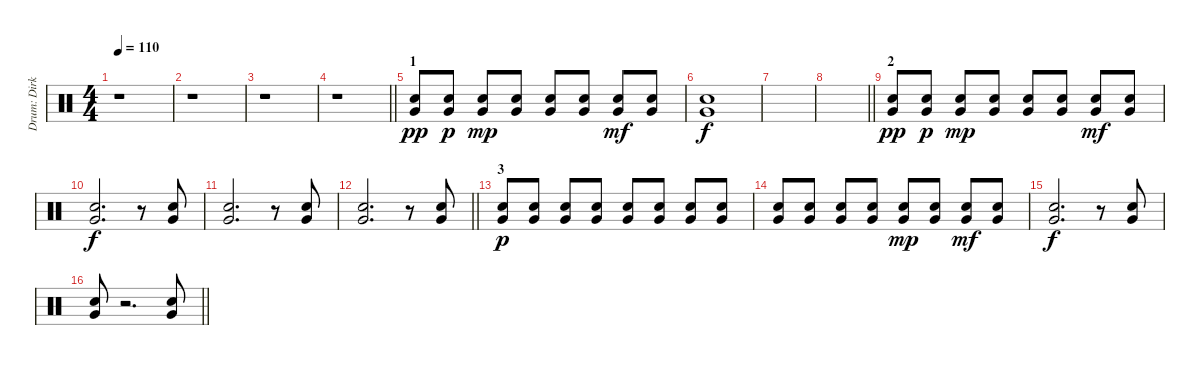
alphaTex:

\track ("Drum: Dirk" "Drum: Dirk") {instrument percussion}
\staff {score}
\articulation defaults
\ts (4 4)
\tempo 110
\clef neutral
\ks c
r.1{dy f} |
r.1 |
r.1 |
\barLineRight lightlight
r.1 |
\section ("" "1")
("Very Low Tom (hit)" "Electric Snare (hit)").8{dy pp} ("Very Low Tom (hit)" "Electric Snare (hit)").8{dy p} ("Very Low Tom (hit)" "Electric Snare (hit)").8{dy mp} ("Very Low Tom (hit)" "Electric Snare (hit)").8 ("Very Low Tom (hit)" "Electric Snare (hit)").8 ("Very Low Tom (hit)" "Electric Snare (hit)").8 ("Very Low Tom (hit)" "Electric Snare (hit)").8{dy mf} ("Very Low Tom (hit)" "Electric Snare (hit)").8 |
("Very Low Tom (hit)" "Electric Snare (hit)").1{dy f} |
|
\barLineRight lightlight
|
\section ("" "2")
("Very Low Tom (hit)" "Electric Snare (hit)").8{dy pp} ("Very Low Tom (hit)" "Electric Snare (hit)").8{dy p} ("Very Low Tom (hit)" "Electric Snare (hit)").8{dy mp} ("Very Low Tom (hit)" "Electric Snare (hit)").8 ("Very Low Tom (hit)" "Electric Snare (hit)").8 ("Very Low Tom (hit)" "Electric Snare (hit)").8 ("Very Low Tom (hit)" "Electric Snare (hit)").8{dy mf} ("Very Low Tom (hit)" "Electric Snare (hit)").8 |
("Very Low Tom (hit)" "Electric Snare (hit)").2{d dy f} r.8 ("Very Low Tom (hit)" "Electric Snare (hit)").8 |
("Very Low Tom (hit)" "Electric Snare (hit)").2{d} r.8 ("Very Low Tom (hit)" "Electric Snare (hit)").8 |
\barLineRight lightlight
("Very Low Tom (hit)" "Electric Snare (hit)").2{d} r.8 ("Very Low Tom (hit)" "Electric Snare (hit)").8 |
\section ("" "3")
("Very Low Tom (hit)" "Electric Snare (hit)").8{dy p} ("Very Low Tom (hit)" "Electric Snare (hit)").8 ("Very Low Tom (hit)" "Electric Snare (hit)").8 ("Very Low Tom (hit)" "Electric Snare (hit)").8 ("Very Low Tom (hit)" "Electric Snare (hit)").8 ("Very Low Tom (hit)" "Electric Snare (hit)").8 ("Very Low Tom (hit)" "Electric Snare (hit)").8 ("Very Low Tom (hit)" "Electric Snare (hit)").8 |
("Very Low Tom (hit)" "Electric Snare (hit)").8 ("Very Low Tom (hit)" "Electric Snare (hit)").8 ("Very Low Tom (hit)" "Electric Snare (hit)").8 ("Very Low Tom (hit)" "Electric Snare (hit)").8 ("Very Low Tom (hit)" "Electric Snare (hit)").8{dy mp} ("Very Low Tom (hit)" "Electric Snare (hit)").8 ("Very Low Tom (hit)" "Electric Snare (hit)").8{dy mf} ("Very Low Tom (hit)" "Electric Snare (hit)").8 |
("Very Low Tom (hit)" "Electric Snare (hit)").2{d dy f} r.8 ("Very Low Tom (hit)" "Electric Snare (hit)").8 |
\barLineRight lightlight
("Very Low Tom (hit)" "Electric Snare (hit)").8 r.2{d} ("Very Low Tom (hit)" "Electric Snare (hit)").8
